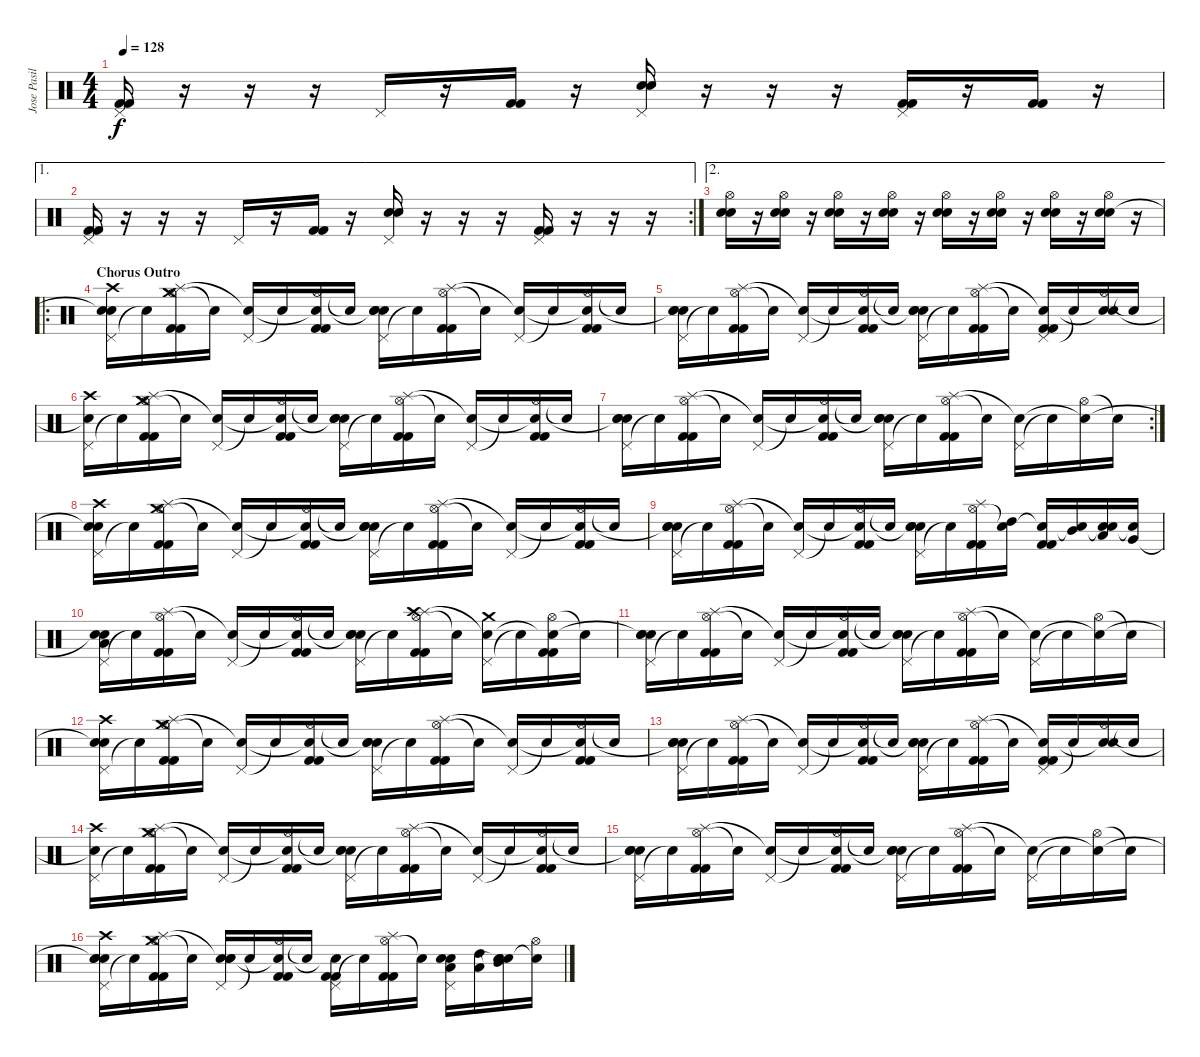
\track ("Jose Pasillas" "Jose Pasil") {instrument percussion}
\staff {score}
\articulation defaults
\ts (4 4)
\tempo 128
\clef neutral
\ks c
("Pedal Hi-Hat (hit)" "Kick (hit) 2" "Kick (hit) 2").16{dy f} r.16 r.16 r.16 "Pedal Hi-Hat (hit)".16 r.16 ("Kick (hit) 2" "Kick (hit) 2").16 r.16 ("Pedal Hi-Hat (hit)" "Electric Snare (hit)" "Electric Snare (hit)").16 r.16 r.16 r.16 ("Pedal Hi-Hat (hit)" "Kick (hit) 2" "Kick (hit) 2").16 r.16 ("Kick (hit) 2" "Kick (hit) 2").16 r.16 |
\ae 1
\rc 2
("Pedal Hi-Hat (hit)" "Kick (hit) 2" "Kick (hit) 2").16 r.16 r.16 r.16 "Pedal Hi-Hat (hit)".16 r.16 ("Kick (hit) 2" "Kick (hit) 2").16 r.16 ("Pedal Hi-Hat (hit)" "Electric Snare (hit)" "Electric Snare (hit)").16 r.16 r.16 r.16 ("Pedal Hi-Hat (hit)" "Kick (hit) 2" "Kick (hit) 2").16 r.16 r.16 r.16 |
\ae 2
("Hi-Hat (open)" "Electric Snare (hit)" "Electric Snare (hit)").16 r.16 ("Hi-Hat (open)" "Electric Snare (hit)" "Electric Snare (hit)").16 r.16 ("Hi-Hat (open)" "Electric Snare (hit)" "Electric Snare (hit)").16 r.16 ("Hi-Hat (open)" "Electric Snare (hit)" "Electric Snare (hit)").16 r.16 ("Hi-Hat (open)" "Electric Snare (hit)" "Electric Snare (hit)").16 r.16 ("Hi-Hat (open)" "Electric Snare (hit)" "Electric Snare (hit)").16 r.16 ("Hi-Hat (open)" "Electric Snare (hit)" "Electric Snare (hit)").16 r.16 ("Hi-Hat (open)" "Electric Snare (hit)" "Electric Snare (hit)").16 r.16 |
\ro
\section ("" "Chorus Outro")
("Pedal Hi-Hat (hit)" "Snare (hit)"{t} "Electric Snare (hit)" "Crash high (hit)").16 "Snare (hit)"{t}.16 ("Hi-Hat (open)" "Splash (hit)" "Kick (hit) 2" "Kick (hit) 2" "Crash medium (hit)").16 "Snare (hit)"{t}.16 ("Pedal Hi-Hat (hit)" "Snare (hit)"{t}).16 "Snare (hit)"{t}.16 ("Hi-Hat (open)" "Snare (hit)"{t} "Kick (hit) 2" "Kick (hit) 2").16 "Snare (hit)"{t}.16 ("Pedal Hi-Hat (hit)" "Snare (hit)"{t} "Electric Snare (hit)" "Electric Snare (hit)").16 "Snare (hit)"{t}.16 ("Hi-Hat (open)" "Splash (hit)" "Kick (hit) 2" "Kick (hit) 2").16 "Snare (hit)"{t}.16 ("Pedal Hi-Hat (hit)" "Snare (hit)"{t}).16 "Snare (hit)"{t}.16 ("Hi-Hat (open)" "Snare (hit)"{t} "Kick (hit) 2" "Kick (hit) 2").16 "Snare (hit)"{t}.16 |
("Pedal Hi-Hat (hit)" "Snare (hit)"{t} "Electric Snare (hit)" "Electric Snare (hit)").16 "Snare (hit)"{t}.16 ("Hi-Hat (open)" "Splash (hit)" "Kick (hit) 2" "Kick (hit) 2").16 "Snare (hit)"{t}.16 ("Pedal Hi-Hat (hit)" "Snare (hit)"{t}).16 "Snare (hit)"{t}.16 ("Hi-Hat (open)" "Snare (hit)"{t} "Kick (hit) 2" "Kick (hit) 2").16 "Snare (hit)"{t}.16 ("Pedal Hi-Hat (hit)" "Snare (hit)"{t} "Electric Snare (hit)" "Electric Snare (hit)").16 "Snare (hit)"{t}.16 ("Hi-Hat (open)" "Splash (hit)" "Kick (hit) 2" "Kick (hit) 2").16 "Snare (hit)"{t}.16 ("Pedal Hi-Hat (hit)" "Snare (hit)"{t} "Kick (hit) 2" "Kick (hit) 2").16 "Snare (hit)"{t}.16 ("Hi-Hat (open)" "Snare (hit)"{t} "Electric Snare (hit)").16 "Snare (hit)"{t}.16 |
("Pedal Hi-Hat (hit)" "Snare (hit)"{t} "Crash high (hit)").16 "Snare (hit)"{t}.16 ("Hi-Hat (open)" "Splash (hit)" "Kick (hit) 2" "Kick (hit) 2" "Crash medium (hit)").16 "Snare (hit)"{t}.16 ("Pedal Hi-Hat (hit)" "Snare (hit)"{t}).16 "Snare (hit)"{t}.16 ("Hi-Hat (open)" "Snare (hit)"{t} "Kick (hit) 2" "Kick (hit) 2").16 "Snare (hit)"{t}.16 ("Pedal Hi-Hat (hit)" "Snare (hit)"{t} "Electric Snare (hit)" "Electric Snare (hit)").16 "Snare (hit)"{t}.16 ("Hi-Hat (open)" "Splash (hit)" "Kick (hit) 2" "Kick (hit) 2").16 "Snare (hit)"{t}.16 ("Pedal Hi-Hat (hit)" "Snare (hit)"{t}).16 "Snare (hit)"{t}.16 ("Hi-Hat (open)" "Snare (hit)"{t} "Kick (hit) 2" "Kick (hit) 2").16 "Snare (hit)"{t}.16 |
\rc 2
("Pedal Hi-Hat (hit)" "Electric Snare (hit)"{t} "Electric Snare (hit)" "Electric Snare (hit)").16 "Snare (hit)"{t}.16 ("Hi-Hat (open)" "Splash (hit)" "Kick (hit) 2" "Kick (hit) 2").16 "Snare (hit)"{t}.16 ("Pedal Hi-Hat (hit)" "Snare (hit)"{t}).16 "Snare (hit)"{t}.16 ("Hi-Hat (open)" "Snare (hit)"{t} "Kick (hit) 2" "Kick (hit) 2").16 "Snare (hit)"{t}.16 ("Pedal Hi-Hat (hit)" "Snare (hit)"{t} "Electric Snare (hit)" "Electric Snare (hit)").16 "Snare (hit)"{t}.16 ("Hi-Hat (open)" "Splash (hit)" "Kick (hit) 2" "Kick (hit) 2").16 "Snare (hit)"{t}.16 ("Pedal Hi-Hat (hit)" "Snare (hit)"{t}).16 "Snare (hit)"{t}.16 ("Hi-Hat (open)" "Snare (hit)"{t}).16 "Snare (hit)"{t}.16 |
("Pedal Hi-Hat (hit)" "Snare (hit)"{t} "Electric Snare (hit)" "Crash high (hit)").16 "Snare (hit)"{t}.16 ("Hi-Hat (open)" "Splash (hit)" "Kick (hit) 2" "Kick (hit) 2" "Crash medium (hit)").16 "Snare (hit)"{t}.16 ("Pedal Hi-Hat (hit)" "Snare (hit)"{t}).16 "Snare (hit)"{t}.16 ("Hi-Hat (open)" "Snare (hit)"{t} "Kick (hit) 2" "Kick (hit) 2").16 "Snare (hit)"{t}.16 ("Pedal Hi-Hat (hit)" "Snare (hit)"{t} "Electric Snare (hit)" "Electric Snare (hit)").16 "Snare (hit)"{t}.16 ("Hi-Hat (open)" "Splash (hit)" "Kick (hit) 2" "Kick (hit) 2").16 "Snare (hit)"{t}.16 ("Pedal Hi-Hat (hit)" "Snare (hit)"{t}).16 "Snare (hit)"{t}.16 ("Hi-Hat (open)" "Snare (hit)"{t} "Kick (hit) 2" "Kick (hit) 2").16 "Snare (hit)"{t}.16 |
("Pedal Hi-Hat (hit)" "Snare (hit)"{t} "Electric Snare (hit)" "Electric Snare (hit)").16 "Snare (hit)"{t}.16 ("Hi-Hat (open)" "Splash (hit)" "Kick (hit) 2" "Kick (hit) 2").16 "Snare (hit)"{t}.16 ("Pedal Hi-Hat (hit)" "Snare (hit)"{t}).16 "Snare (hit)"{t}.16 ("Hi-Hat (open)" "Snare (hit)"{t} "Kick (hit) 2" "Kick (hit) 2").16 "Snare (hit)"{t}.16 ("Pedal Hi-Hat (hit)" "Snare (hit)"{t} "Electric Snare (hit)" "Electric Snare (hit)").16 "Snare (hit)"{t}.16 ("Hi-Hat (open)" "Splash (hit)" "Kick (hit) 2" "Kick (hit) 2").16 ("Snare (hit)"{t} "High Tom (hit)").16 ("Snare (hit)"{t} "Kick (hit) 2" "Kick (hit) 2").16 ("Snare (hit)"{t} "Mid Tom (hit)").16 ("Snare (hit)"{t} "Electric Snare (hit)" "Low Tom (hit)").16 ("Snare (hit)"{t} "Very Low Tom (hit)").16 |
("Pedal Hi-Hat (hit)" "Snare (hit)"{t} "Electric Snare (hit)" "Low Floor Tom (hit)").16 "Snare (hit)"{t}.16 ("Hi-Hat (open)" "Splash (hit)" "Kick (hit) 2" "Kick (hit) 2").16 "Snare (hit)"{t}.16 ("Pedal Hi-Hat (hit)" "Snare (hit)"{t}).16 "Snare (hit)"{t}.16 ("Hi-Hat (open)" "Snare (hit)"{t} "Kick (hit) 2" "Kick (hit) 2").16 "Snare (hit)"{t}.16 ("Pedal Hi-Hat (hit)" "Snare (hit)"{t} "Electric Snare (hit)" "Electric Snare (hit)").16 "Snare (hit)"{t}.16 ("Hi-Hat (open)" "Splash (hit)" "Kick (hit) 2" "Kick (hit) 2" "Crash high (hit)").16 "Snare (hit)"{t}.16 ("Pedal Hi-Hat (hit)" "Snare (hit)"{t} "Crash medium (hit)").16 "Snare (hit)"{t}.16 ("Hi-Hat (open)" "Snare (hit)"{t} "Kick (hit) 2" "Kick (hit) 2").16 "Snare (hit)"{t}.16 |
("Pedal Hi-Hat (hit)" "Electric Snare (hit)"{t} "Electric Snare (hit)" "Electric Snare (hit)").16 "Snare (hit)"{t}.16 ("Hi-Hat (open)" "Splash (hit)" "Kick (hit) 2" "Kick (hit) 2").16 "Snare (hit)"{t}.16 ("Pedal Hi-Hat (hit)" "Snare (hit)"{t}).16 "Snare (hit)"{t}.16 ("Hi-Hat (open)" "Snare (hit)"{t} "Kick (hit) 2" "Kick (hit) 2").16 "Snare (hit)"{t}.16 ("Pedal Hi-Hat (hit)" "Snare (hit)"{t} "Electric Snare (hit)" "Electric Snare (hit)").16 "Snare (hit)"{t}.16 ("Hi-Hat (open)" "Splash (hit)" "Kick (hit) 2" "Kick (hit) 2").16 "Snare (hit)"{t}.16 ("Pedal Hi-Hat (hit)" "Snare (hit)"{t}).16 "Snare (hit)"{t}.16 ("Hi-Hat (open)" "Snare (hit)"{t}).16 "Snare (hit)"{t}.16 |
("Pedal Hi-Hat (hit)" "Snare (hit)"{t} "Electric Snare (hit)" "Crash high (hit)").16 "Snare (hit)"{t}.16 ("Hi-Hat (open)" "Splash (hit)" "Kick (hit) 2" "Kick (hit) 2" "Crash medium (hit)").16 "Snare (hit)"{t}.16 ("Pedal Hi-Hat (hit)" "Snare (hit)"{t}).16 "Snare (hit)"{t}.16 ("Hi-Hat (open)" "Snare (hit)"{t} "Kick (hit) 2" "Kick (hit) 2").16 "Snare (hit)"{t}.16 ("Pedal Hi-Hat (hit)" "Snare (hit)"{t} "Electric Snare (hit)" "Electric Snare (hit)").16 "Snare (hit)"{t}.16 ("Hi-Hat (open)" "Splash (hit)" "Kick (hit) 2" "Kick (hit) 2").16 "Snare (hit)"{t}.16 ("Pedal Hi-Hat (hit)" "Snare (hit)"{t}).16 "Snare (hit)"{t}.16 ("Hi-Hat (open)" "Snare (hit)"{t} "Kick (hit) 2" "Kick (hit) 2").16 "Snare (hit)"{t}.16 |
("Pedal Hi-Hat (hit)" "Snare (hit)"{t} "Electric Snare (hit)" "Electric Snare (hit)").16 "Snare (hit)"{t}.16 ("Hi-Hat (open)" "Splash (hit)" "Kick (hit) 2" "Kick (hit) 2").16 "Snare (hit)"{t}.16 ("Pedal Hi-Hat (hit)" "Snare (hit)"{t}).16 "Snare (hit)"{t}.16 ("Hi-Hat (open)" "Snare (hit)"{t} "Kick (hit) 2" "Kick (hit) 2").16 "Snare (hit)"{t}.16 ("Pedal Hi-Hat (hit)" "Snare (hit)"{t} "Electric Snare (hit)" "Electric Snare (hit)").16 "Snare (hit)"{t}.16 ("Hi-Hat (open)" "Splash (hit)" "Kick (hit) 2" "Kick (hit) 2").16 "Snare (hit)"{t}.16 ("Pedal Hi-Hat (hit)" "Snare (hit)"{t} "Kick (hit) 2" "Kick (hit) 2").16 "Snare (hit)"{t}.16 ("Hi-Hat (open)" "Snare (hit)"{t} "Electric Snare (hit)").16 "Snare (hit)"{t}.16 |
("Pedal Hi-Hat (hit)" "Snare (hit)"{t} "Crash high (hit)").16 "Snare (hit)"{t}.16 ("Hi-Hat (open)" "Splash (hit)" "Kick (hit) 2" "Kick (hit) 2" "Crash medium (hit)").16 "Snare (hit)"{t}.16 ("Pedal Hi-Hat (hit)" "Snare (hit)"{t}).16 "Snare (hit)"{t}.16 ("Hi-Hat (open)" "Snare (hit)"{t} "Kick (hit) 2" "Kick (hit) 2").16 "Snare (hit)"{t}.16 ("Pedal Hi-Hat (hit)" "Snare (hit)"{t} "Electric Snare (hit)" "Electric Snare (hit)").16 "Snare (hit)"{t}.16 ("Hi-Hat (open)" "Splash (hit)" "Kick (hit) 2" "Kick (hit) 2").16 "Snare (hit)"{t}.16 ("Pedal Hi-Hat (hit)" "Snare (hit)"{t}).16 "Snare (hit)"{t}.16 ("Hi-Hat (open)" "Snare (hit)"{t} "Kick (hit) 2" "Kick (hit) 2").16 "Snare (hit)"{t}.16 |
("Pedal Hi-Hat (hit)" "Electric Snare (hit)"{t} "Electric Snare (hit)" "Electric Snare (hit)").16 "Snare (hit)"{t}.16 ("Hi-Hat (open)" "Splash (hit)" "Kick (hit) 2" "Kick (hit) 2").16 "Snare (hit)"{t}.16 ("Pedal Hi-Hat (hit)" "Snare (hit)"{t}).16 "Snare (hit)"{t}.16 ("Hi-Hat (open)" "Snare (hit)"{t} "Kick (hit) 2" "Kick (hit) 2").16 "Snare (hit)"{t}.16 ("Pedal Hi-Hat (hit)" "Snare (hit)"{t} "Electric Snare (hit)" "Electric Snare (hit)").16 "Snare (hit)"{t}.16 ("Hi-Hat (open)" "Splash (hit)" "Kick (hit) 2" "Kick (hit) 2").16 "Snare (hit)"{t}.16 ("Pedal Hi-Hat (hit)" "Snare (hit)"{t}).16 "Snare (hit)"{t}.16 ("Hi-Hat (open)" "Snare (hit)"{t}).16 "Snare (hit)"{t}.16 |
("Pedal Hi-Hat (hit)" "Electric Snare (hit)"{t} "Electric Snare (hit)" "Electric Snare (hit)" "Crash high (hit)").16 "Snare (hit)"{t}.16 ("Hi-Hat (open)" "Splash (hit)" "Kick (hit) 2" "Kick (hit) 2" "Crash medium (hit)").16 "Snare (hit)"{t}.16 ("Pedal Hi-Hat (hit)" "Snare (hit)"{t} "Electric Snare (hit)" "Electric Snare (hit)").16 "Snare (hit)"{t}.16 ("Hi-Hat (open)" "Snare (hit)"{t} "Kick (hit) 2" "Kick (hit) 2").16 "Snare (hit)"{t}.16 ("Pedal Hi-Hat (hit)" "Snare (hit)"{t} "Kick (hit) 2" "Kick (hit) 2").16 "Snare (hit)"{t}.16 ("Hi-Hat (open)" "Splash (hit)" "Kick (hit) 2" "Kick (hit) 2").16 "Snare (hit)"{t}.16 ("Pedal Hi-Hat (hit)" "Low Tom (hit)" "Electric Snare (hit)" "Electric Snare (hit)").16 ("High Tom (hit)" "Low Tom (hit)").16 ("Mid Tom (hit)" "Snare (hit)"{t} "Electric Snare (hit)" "Electric Snare (hit)").16 ("Hi-Hat (open)" "Snare (hit)"{t}).16
